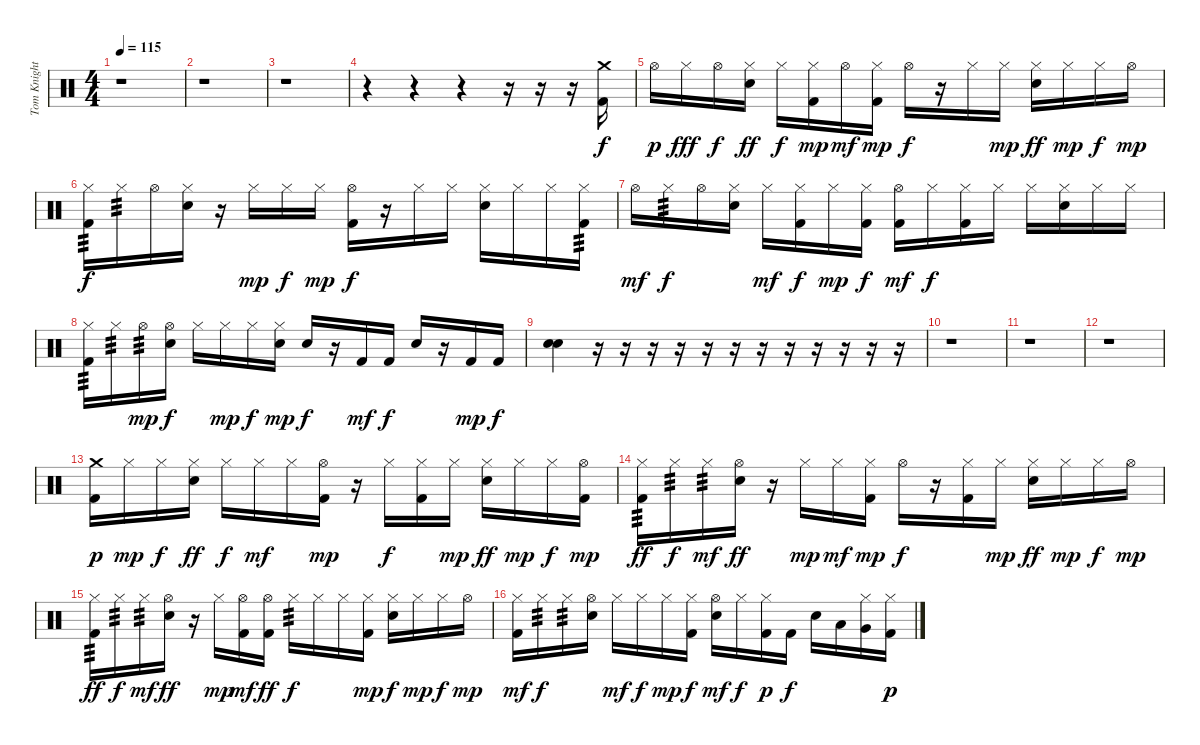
\track ("Tom Knight" "Tom Knight") {instrument percussion}
\staff {score}
\articulation defaults
\ts (4 4)
\tempo 115
\clef neutral
\ks c
r.1{dy f} |
r.1 |
r.1 |
r.4 r.4 r.4 r.16 r.16 r.16 ("Crash medium (hit)" "Kick (hit) 2").16 |
"Hi-Hat (open)".16{dy p} "Hi-Hat (closed)".16{dy fff} "Hi-Hat (open)".16{dy f} ("Hi-Hat (closed)" "Electric Snare (hit)").16{dy ff} "Hi-Hat (closed)".16{dy f} ("Hi-Hat (closed)" "Kick (hit) 2").16{dy mp} "Hi-Hat (open)".16{dy mf} ("Hi-Hat (closed)" "Kick (hit) 2").16{dy mp} "Hi-Hat (open)".16{dy f} r.16 "Hi-Hat (closed)".16 "Hi-Hat (closed)".16{dy mp} ("Hi-Hat (closed)" "Electric Snare (hit)").16{dy ff} "Hi-Hat (closed)".16{dy mp} "Hi-Hat (closed)".16{dy f} "Hi-Hat (open)".16{dy mp} |
("Hi-Hat (closed)" "Kick (hit) 2").16{tp 3 dy f} "Hi-Hat (closed)".16{tp 3} "Hi-Hat (open)".16 ("Hi-Hat (closed)" "Electric Snare (hit)").16 r.16 "Hi-Hat (closed)".16{dy mp} "Hi-Hat (closed)".16{dy f} "Hi-Hat (closed)".16{dy mp} ("Hi-Hat (open)" "Kick (hit) 2").16{dy f} r.16 "Hi-Hat (closed)".16 "Hi-Hat (closed)".16 ("Hi-Hat (closed)" "Electric Snare (hit)").16 "Hi-Hat (closed)".16 "Hi-Hat (closed)".16 ("Hi-Hat (closed)" "Kick (hit) 2").16{tp 3} |
"Hi-Hat (open)".16{dy mf} "Hi-Hat (closed)".16{tp 3 dy f} "Hi-Hat (open)".16 ("Hi-Hat (closed)" "Electric Snare (hit)").16 "Hi-Hat (closed)".16{dy mf} ("Hi-Hat (closed)" "Kick (hit) 2").16{dy f} "Hi-Hat (closed)".16{dy mp} ("Hi-Hat (closed)" "Kick (hit) 2").16{dy f} ("Hi-Hat (open)" "Kick (hit) 2").16{dy mf} "Hi-Hat (closed)".16{dy f} ("Hi-Hat (closed)" "Kick (hit) 2").16 "Hi-Hat (closed)".16 "Hi-Hat (closed)".16 ("Hi-Hat (closed)" "Electric Snare (hit)").16 "Hi-Hat (closed)".16 "Hi-Hat (closed)".16 |
("Hi-Hat (closed)" "Kick (hit) 2").16{tp 3} "Hi-Hat (closed)".16{tp 3} "Hi-Hat (open)".16{tp 3 dy mp} ("Hi-Hat (open)" "Electric Snare (hit)").16{dy f} "Hi-Hat (closed)".16 "Hi-Hat (closed)".16{dy mp} "Hi-Hat (closed)".16{dy f} ("Hi-Hat (closed)" "Electric Snare (hit)").16{dy mp} "Electric Snare (hit)".16{dy f} r.16 "Kick (hit) 2".16{dy mf} "Kick (hit) 2".16{dy f} "Electric Snare (hit)".16 r.16 "Kick (hit) 2".16{dy mp} "Kick (hit) 2".16{dy f} |
("Electric Snare (hit)" "Electric Snare (hit)").4{bu 120} r.16 r.16 r.16 r.16 r.16 r.16 r.16 r.16 r.16 r.16 r.16 r.16 |
r.1 |
r.1 |
r.1 |
\section ("" "")
("Crash medium (hit)" "Kick (hit) 2").16{dy p} "Hi-Hat (closed)".16{dy mp} "Hi-Hat (closed)".16{dy f} ("Hi-Hat (closed)" "Electric Snare (hit)").16{dy ff} "Hi-Hat (closed)".16{dy f} "Hi-Hat (closed)".16{dy mf} "Hi-Hat (closed)".16 ("Hi-Hat (open)" "Kick (hit) 2").16{dy mp} r.16 "Hi-Hat (closed)".16{dy f} ("Hi-Hat (closed)" "Kick (hit) 2").16 "Hi-Hat (closed)".16{dy mp} ("Hi-Hat (closed)" "Electric Snare (hit)").16{dy ff} "Hi-Hat (closed)".16{dy mp} "Hi-Hat (closed)".16{dy f} ("Hi-Hat (open)" "Kick (hit) 2").16{dy mp} |
("Hi-Hat (closed)" "Kick (hit) 2").16{tp 3 dy ff} "Hi-Hat (closed)".16{tp 3 dy f} "Hi-Hat (closed)".16{tp 3 dy mf} ("Hi-Hat (open)" "Electric Snare (hit)").16{dy ff} r.16 "Hi-Hat (closed)".16{dy mp} "Hi-Hat (closed)".16{dy mf} ("Hi-Hat (closed)" "Kick (hit) 2").16{dy mp} "Hi-Hat (open)".16{dy f} r.16 ("Hi-Hat (closed)" "Kick (hit) 2").16 "Hi-Hat (closed)".16{dy mp} ("Hi-Hat (closed)" "Electric Snare (hit)").16{dy ff} "Hi-Hat (closed)".16{dy mp} "Hi-Hat (closed)".16{dy f} "Hi-Hat (open)".16{dy mp} |
("Hi-Hat (closed)" "Kick (hit) 2").16{tp 3 dy ff} "Hi-Hat (closed)".16{tp 3 dy f} "Hi-Hat (closed)".16{tp 3 dy mf} ("Hi-Hat (open)" "Electric Snare (hit)").16{dy ff} r.16 "Hi-Hat (closed)".16{dy mp} ("Hi-Hat (open)" "Kick (hit) 2").16{dy mf} ("Hi-Hat (open)" "Kick (hit) 2").16{dy ff} "Hi-Hat (closed)".16{tp 3 dy f} "Hi-Hat (closed)".16 "Hi-Hat (closed)".16 ("Hi-Hat (closed)" "Kick (hit) 2").16{dy mp} ("Hi-Hat (closed)" "Electric Snare (hit)").16{dy f} "Hi-Hat (closed)".16{dy mp} "Hi-Hat (closed)".16{dy f} "Hi-Hat (open)".16{dy mp} |
("Hi-Hat (closed)" "Kick (hit) 2").16{dy mf} "Hi-Hat (closed)".16{tp 3 dy f} "Hi-Hat (closed)".16{tp 3} ("Hi-Hat (open)" "Electric Snare (hit)").16 "Hi-Hat (closed)".16{dy mf} "Hi-Hat (closed)".16{dy f} "Hi-Hat (closed)".16{dy mp} ("Hi-Hat (closed)" "Kick (hit) 2").16{dy f} ("Hi-Hat (open)" "Electric Snare (hit)").16{dy mf} "Hi-Hat (closed)".16{dy f} ("Hi-Hat (closed)" "Kick (hit) 2").16{dy p} "Kick (hit) 2".16{dy f} "Electric Snare (hit)".16 "Low Tom (hit)".16 ("Hi-Hat (closed)" "Very Low Tom (hit)").16 ("Hi-Hat (closed)" "Kick (hit) 2").16{dy p}
